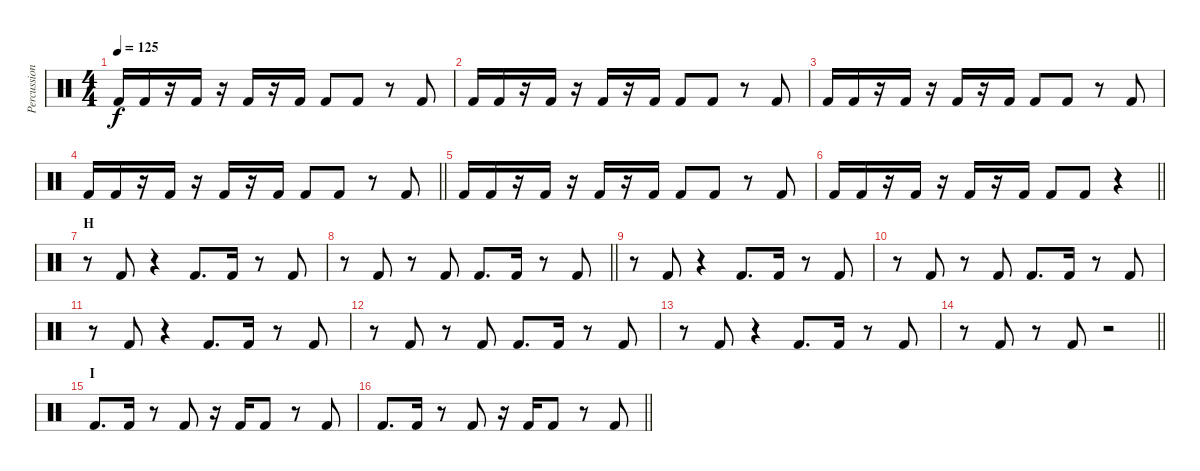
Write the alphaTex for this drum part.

\track ("Percussion (Bass Drum)" "Percussion") {instrument percussion}
\staff {score}
\articulation defaults
\ts (4 4)
\tempo 125
\clef neutral
\ks c "Kick (hit) 2".16{dy f} "Kick (hit) 2".16
r.16 "Kick (hit) 2".16 r.16 "Kick (hit) 2".16 r.16 "Kick (hit) 2".16 "Kick (hit) 2".8 "Kick (hit) 2".8 r.8 "Kick (hit) 2".8 |
"Kick (hit) 2".16 "Kick (hit) 2".16 r.16 "Kick (hit) 2".16 r.16 "Kick (hit) 2".16 r.16 "Kick (hit) 2".16 "Kick (hit) 2".8 "Kick (hit) 2".8 r.8 "Kick (hit) 2".8 |
"Kick (hit) 2".16 "Kick (hit) 2".16 r.16 "Kick (hit) 2".16 r.16 "Kick (hit) 2".16 r.16 "Kick (hit) 2".16 "Kick (hit) 2".8 "Kick (hit) 2".8 r.8 "Kick (hit) 2".8 |
\barLineRight lightlight "Kick (hit) 2".16 "Kick (hit) 2".16
r.16 "Kick (hit) 2".16 r.16 "Kick (hit) 2".16 r.16 "Kick (hit) 2".16 "Kick (hit) 2".8 "Kick (hit) 2".8 r.8 "Kick (hit) 2".8 |
"Kick (hit) 2".16 "Kick (hit) 2".16 r.16 "Kick (hit) 2".16 r.16 "Kick (hit) 2".16 r.16 "Kick (hit) 2".16 "Kick (hit) 2".8 "Kick (hit) 2".8 r.8 "Kick (hit) 2".8 |
\barLineRight lightlight "Kick (hit) 2".16 "Kick (hit) 2".16
r.16 "Kick (hit) 2".16 r.16 "Kick (hit) 2".16 r.16 "Kick (hit) 2".16 "Kick (hit) 2".8 "Kick (hit) 2".8 r.4 |
\section ("" "H")
r.8 "Kick (hit) 2".8 r.4 "Kick (hit) 2".8{d} "Kick (hit) 2".16 r.8 "Kick (hit) 2".8 |
\barLineRight lightlight
r.8 "Kick (hit) 2".8 r.8 "Kick (hit) 2".8 "Kick (hit) 2".8{d} "Kick (hit) 2".16 r.8 "Kick (hit) 2".8 |
r.8 "Kick (hit) 2".8 r.4 "Kick (hit) 2".8{d} "Kick (hit) 2".16 r.8 "Kick (hit) 2".8 |
r.8 "Kick (hit) 2".8 r.8 "Kick (hit) 2".8 "Kick (hit) 2".8{d} "Kick (hit) 2".16 r.8 "Kick (hit) 2".8 |
r.8 "Kick (hit) 2".8 r.4 "Kick (hit) 2".8{d} "Kick (hit) 2".16 r.8 "Kick (hit) 2".8 |
r.8 "Kick (hit) 2".8 r.8 "Kick (hit) 2".8 "Kick (hit) 2".8{d} "Kick (hit) 2".16 r.8 "Kick (hit) 2".8 |
r.8 "Kick (hit) 2".8 r.4 "Kick (hit) 2".8{d} "Kick (hit) 2".16 r.8 "Kick (hit) 2".8 |
\barLineRight lightlight
r.8 "Kick (hit) 2".8 r.8 "Kick (hit) 2".8 r.2 |
\section ("" "I")
"Kick (hit) 2".8{d} "Kick (hit) 2".16 r.8 "Kick (hit) 2".8 r.16 "Kick (hit) 2".16 "Kick (hit) 2".8 r.8 "Kick (hit) 2".8 |
\barLineRight lightlight "Kick (hit) 2".8{d} "Kick (hit) 2".16
r.8 "Kick (hit) 2".8 r.16 "Kick (hit) 2".16 "Kick (hit) 2".8 r.8 "Kick (hit) 2".8
